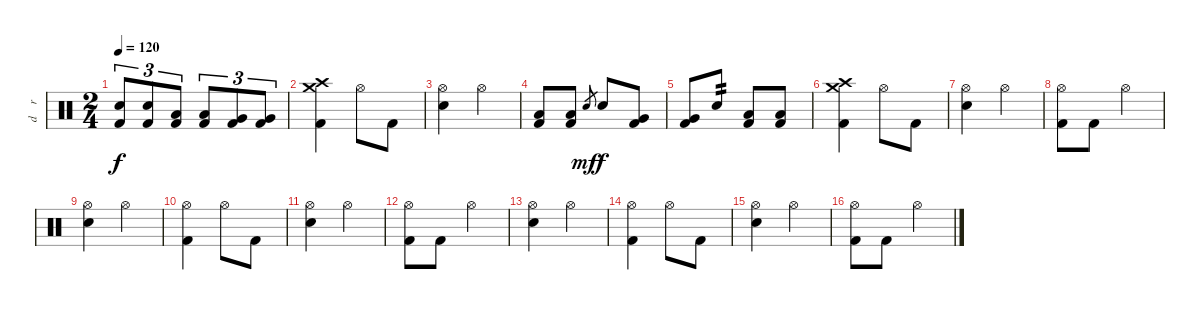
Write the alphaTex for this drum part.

\track ("d    r     u    m    s" "d    r    ") {instrument percussion}
\staff {score}
\articulation defaults
\ts (2 4)
\tempo 120
\clef neutral
\ks c
("Snare (hit) 2" "Kick (hit) 2").8{tu (3 2) dy f} ("Snare (hit) 2" "Kick (hit) 2").8{tu (3 2)} ("Low Tom (hit)" "Kick (hit) 2").8{tu (3 2)} ("Low Tom (hit)" "Kick (hit) 2").8{tu (3 2)} ("Very Low Tom (hit)" "Kick (hit) 2").8{tu (3 2)} ("Very Low Tom (hit)" "Kick (hit) 2").8{tu (3 2)} |
("Crash high (hit)" "Crash medium (hit)" "Kick (hit) 2").4 "Hi-Hat (open)".8 "Kick (hit) 2".8 |
("Hi-Hat (open)" "Snare (hit) 2").4 "Hi-Hat (open)".4 |
("Low Tom (hit)" "Kick (hit) 2").8 ("Low Tom (hit)" "Kick (hit) 2").8 "Snare (hit) 2".8{gr dy mf} "Snare (hit) 2".8{dy f} ("Very Low Tom (hit)" "Kick (hit) 2").8 |
("Very Low Tom (hit)" "Kick (hit) 2").8 "Snare (hit) 2".8{tp 2} ("Low Floor Tom (hit)" "Kick (hit) 2").8 ("Low Floor Tom (hit)" "Kick (hit) 2").8 |
("Crash high (hit)" "Crash medium (hit)" "Kick (hit) 2").4 "Hi-Hat (open)".8 "Kick (hit) 2".8 |
("Hi-Hat (open)" "Snare (hit) 2").4 "Hi-Hat (open)".4 |
("Hi-Hat (open)" "Kick (hit) 2").8 "Kick (hit) 2".8 "Hi-Hat (open)".4 |
("Hi-Hat (open)" "Snare (hit) 2").4 "Hi-Hat (open)".4 |
("Hi-Hat (open)" "Kick (hit) 2").4 "Hi-Hat (open)".8 "Kick (hit) 2".8 |
("Hi-Hat (open)" "Snare (hit) 2").4 "Hi-Hat (open)".4 |
("Hi-Hat (open)" "Kick (hit) 2").8 "Kick (hit) 2".8 "Hi-Hat (open)".4 |
("Hi-Hat (open)" "Snare (hit) 2").4 "Hi-Hat (open)".4 |
("Hi-Hat (open)" "Kick (hit) 2").4 "Hi-Hat (open)".8 "Kick (hit) 2".8 |
("Hi-Hat (open)" "Snare (hit) 2").4 "Hi-Hat (open)".4 |
("Hi-Hat (open)" "Kick (hit) 2").8 "Kick (hit) 2".8 "Hi-Hat (open)".4
